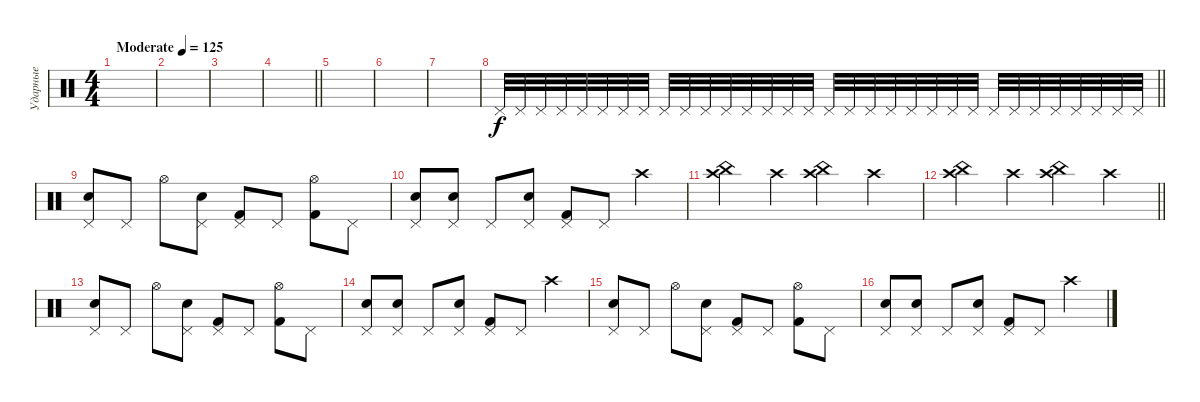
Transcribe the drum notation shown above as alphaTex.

\track ("Ударные" "Ударные") {instrument percussion}
\staff {score}
\articulation defaults
\ts (4 4)
\tempo (125 "Moderate")
\clef neutral
\ks c
|
|
|
\barLineRight lightlight
|
|
|
|
\barLineRight lightlight "Pedal Hi-Hat (hit)".32 "Pedal Hi-Hat (hit)".32 "Pedal Hi-Hat (hit)".32 "Pedal Hi-Hat (hit)".32 "Pedal Hi-Hat (hit)".32 "Pedal Hi-Hat (hit)".32 "Pedal Hi-Hat (hit)".32 "Pedal Hi-Hat (hit)".32 "Pedal Hi-Hat (hit)".32 "Pedal Hi-Hat (hit)".32 "Pedal Hi-Hat (hit)".32 "Pedal Hi-Hat (hit)".32 "Pedal Hi-Hat (hit)".32 "Pedal Hi-Hat (hit)".32 "Pedal Hi-Hat (hit)".32 "Pedal Hi-Hat (hit)".32 "Pedal Hi-Hat (hit)".32 "Pedal Hi-Hat (hit)".32 "Pedal Hi-Hat (hit)".32 "Pedal Hi-Hat (hit)".32 "Pedal Hi-Hat (hit)".32 "Pedal Hi-Hat (hit)".32 "Pedal Hi-Hat (hit)".32 "Pedal Hi-Hat (hit)".32 "Pedal Hi-Hat (hit)".32 "Pedal Hi-Hat (hit)".32 "Pedal Hi-Hat (hit)".32 "Pedal Hi-Hat (hit)".32 "Pedal Hi-Hat (hit)".32 "Pedal Hi-Hat (hit)".32 "Pedal Hi-Hat (hit)".32 "Pedal Hi-Hat (hit)".32
|
("Pedal Hi-Hat (hit)" "Snare (hit) 2").8 "Pedal Hi-Hat (hit)".8 "Hi-Hat (open)".8 ("Pedal Hi-Hat (hit)" "Snare (hit) 2").8 ("Pedal Hi-Hat (hit)" "Kick (hit) 2").8 "Pedal Hi-Hat (hit)".8 ("Hi-Hat (open)" "Kick (hit) 2").8 "Pedal Hi-Hat (hit)".8 |
("Pedal Hi-Hat (hit)" "Snare (hit) 2").8 ("Pedal Hi-Hat (hit)" "Snare (hit) 2").8 "Pedal Hi-Hat (hit)".8 ("Pedal Hi-Hat (hit)" "Snare (hit) 2").8 ("Pedal Hi-Hat (hit)" "Kick (hit) 2").8 "Pedal Hi-Hat (hit)".8 "Crash high (hit)".4 |
("Crash high (hit)" "China (hit)").4 "Crash high (hit)".4 ("Crash high (hit)" "China (hit)").4 "Crash high (hit)".4 |
\barLineRight lightlight
("Crash high (hit)" "China (hit)").4 "Crash high (hit)".4 ("Crash high (hit)" "China (hit)").4 "Crash high (hit)".4 |
("Pedal Hi-Hat (hit)" "Snare (hit) 2").8 "Pedal Hi-Hat (hit)".8 "Hi-Hat (open)".8 ("Pedal Hi-Hat (hit)" "Snare (hit) 2").8 ("Pedal Hi-Hat (hit)" "Kick (hit) 2").8 "Pedal Hi-Hat (hit)".8 ("Hi-Hat (open)" "Kick (hit) 2").8 "Pedal Hi-Hat (hit)".8 |
("Pedal Hi-Hat (hit)" "Snare (hit) 2").8 ("Pedal Hi-Hat (hit)" "Snare (hit) 2").8 "Pedal Hi-Hat (hit)".8 ("Pedal Hi-Hat (hit)" "Snare (hit) 2").8 ("Pedal Hi-Hat (hit)" "Kick (hit) 2").8 "Pedal Hi-Hat (hit)".8 "Crash high (hit)".4 |
("Pedal Hi-Hat (hit)" "Snare (hit) 2").8 "Pedal Hi-Hat (hit)".8 "Hi-Hat (open)".8 ("Pedal Hi-Hat (hit)" "Snare (hit) 2").8 ("Pedal Hi-Hat (hit)" "Kick (hit) 2").8 "Pedal Hi-Hat (hit)".8 ("Hi-Hat (open)" "Kick (hit) 2").8 "Pedal Hi-Hat (hit)".8 |
("Pedal Hi-Hat (hit)" "Snare (hit) 2").8 ("Pedal Hi-Hat (hit)" "Snare (hit) 2").8 "Pedal Hi-Hat (hit)".8 ("Pedal Hi-Hat (hit)" "Snare (hit) 2").8 ("Pedal Hi-Hat (hit)" "Kick (hit) 2").8 "Pedal Hi-Hat (hit)".8 "Crash high (hit)".4
